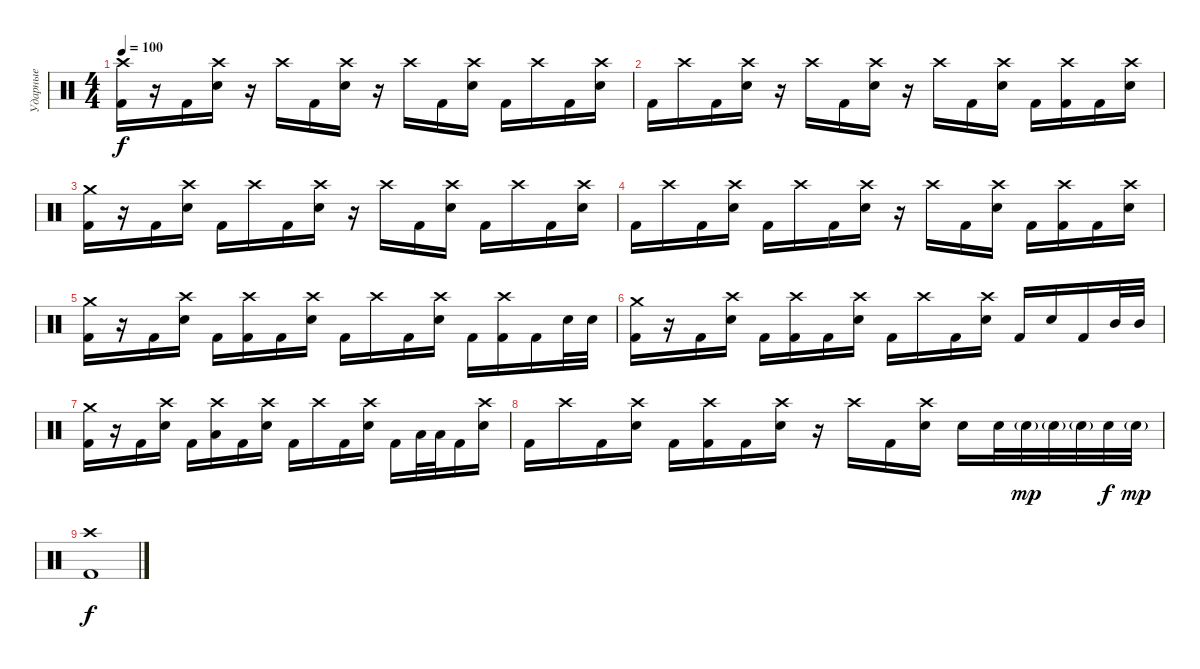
\track ("Ударные" "Ударные") {instrument percussion}
\staff {score}
\articulation defaults
\ts (4 4)
\tempo 100
\clef neutral
\ks c
("Crash high (hit)" "Kick (hit) 2").16{dy f} r.16 "Kick (hit) 2".16 ("Crash high (hit)" "Electric Snare (hit)").16 r.16 "Crash high (hit)".16 "Kick (hit) 2".16 ("Crash high (hit)" "Electric Snare (hit)").16 r.16 "Crash high (hit)".16 "Kick (hit) 2".16 ("Crash high (hit)" "Electric Snare (hit)").16 "Kick (hit) 2".16 "Crash high (hit)".16 "Kick (hit) 2".16 ("Crash high (hit)" "Electric Snare (hit)").16 |
"Kick (hit) 2".16 "Crash high (hit)".16 "Kick (hit) 2".16 ("Crash high (hit)" "Electric Snare (hit)").16 r.16 "Crash high (hit)".16 "Kick (hit) 2".16 ("Crash high (hit)" "Electric Snare (hit)").16 r.16 "Crash high (hit)".16 "Kick (hit) 2".16 ("Crash high (hit)" "Electric Snare (hit)").16 "Kick (hit) 2".16 ("Crash high (hit)" "Kick (hit) 2").16 "Kick (hit) 2".16 ("Crash high (hit)" "Electric Snare (hit)").16 |
("Crash medium (hit)" "Kick (hit) 2").16 r.16 "Kick (hit) 2".16 ("Crash high (hit)" "Electric Snare (hit)").16 "Kick (hit) 2".16 "Crash high (hit)".16 "Kick (hit) 2".16 ("Crash high (hit)" "Electric Snare (hit)").16 r.16 "Crash high (hit)".16 "Kick (hit) 2".16 ("Crash high (hit)" "Electric Snare (hit)").16 "Kick (hit) 2".16 "Crash high (hit)".16 "Kick (hit) 2".16 ("Crash high (hit)" "Electric Snare (hit)").16 |
"Kick (hit) 2".16 "Crash high (hit)".16 "Kick (hit) 2".16 ("Crash high (hit)" "Electric Snare (hit)").16 "Kick (hit) 2".16 "Crash high (hit)".16 "Kick (hit) 2".16 ("Crash high (hit)" "Electric Snare (hit)").16 r.16 "Crash high (hit)".16 "Kick (hit) 2".16 ("Crash high (hit)" "Electric Snare (hit)").16 "Kick (hit) 2".16 ("Crash high (hit)" "Kick (hit) 2").16 "Kick (hit) 2".16 ("Crash high (hit)" "Electric Snare (hit)").16 |
("Crash medium (hit)" "Kick (hit) 2").16 r.16 "Kick (hit) 2".16 ("Crash high (hit)" "Electric Snare (hit)").16 "Kick (hit) 2".16 ("Crash high (hit)" "Kick (hit) 2").16 "Kick (hit) 2".16 ("Crash high (hit)" "Electric Snare (hit)").16 "Kick (hit) 2".16 "Crash high (hit)".16 "Kick (hit) 2".16 ("Crash high (hit)" "Electric Snare (hit)").16 "Kick (hit) 2".16 ("Crash high (hit)" "Kick (hit) 2").16 "Kick (hit) 2".16 "Electric Snare (hit)".32 "Electric Snare (hit)".32 |
("Crash medium (hit)" "Kick (hit) 2").16 r.16 "Kick (hit) 2".16 ("Crash high (hit)" "Electric Snare (hit)").16 "Kick (hit) 2".16 ("Crash high (hit)" "Kick (hit) 2").16 "Kick (hit) 2".16 ("Crash high (hit)" "Electric Snare (hit)").16 "Kick (hit) 2".16 "Crash high (hit)".16 "Kick (hit) 2".16 ("Crash high (hit)" "Electric Snare (hit)").16 "Kick (hit) 2".16 "Electric Snare (hit)".16 "Kick (hit) 2".16 "Mid Tom (hit)".32 "Mid Tom (hit)".32 |
("Crash medium (hit)" "Kick (hit) 2").16 r.16 "Kick (hit) 2".16 ("Crash high (hit)" "Electric Snare (hit)").16 "Kick (hit) 2".16 ("Crash high (hit)" "Low Floor Tom (hit)").16 "Kick (hit) 2".16 ("Crash high (hit)" "Electric Snare (hit)").16 "Kick (hit) 2".16 "Crash high (hit)".16 "Kick (hit) 2".16 ("Crash high (hit)" "Electric Snare (hit)").16 "Kick (hit) 2".16 "Low Tom (hit)".32 "Low Tom (hit)".32 "Kick (hit) 2".16 ("Crash high (hit)" "Electric Snare (hit)").16 |
"Kick (hit) 2".16 "Crash high (hit)".16 "Kick (hit) 2".16 ("Crash high (hit)" "Electric Snare (hit)").16 "Kick (hit) 2".16 ("Crash high (hit)" "Kick (hit) 2").16 "Kick (hit) 2".16 ("Crash high (hit)" "Electric Snare (hit)").16 r.16 "Crash high (hit)".16 "Kick (hit) 2".16 ("Crash high (hit)" "Electric Snare (hit)").16 "Electric Snare (hit)".16 "Electric Snare (hit)".32 "Electric Snare (hit)"{g}.32{dy mp} "Electric Snare (hit)"{g}.32 "Electric Snare (hit)"{g}.32 "Electric Snare (hit)".32{dy f} "Electric Snare (hit)"{g}.32{dy mp} |
("Crash high (hit)" "Kick (hit) 2").1{dy f}
